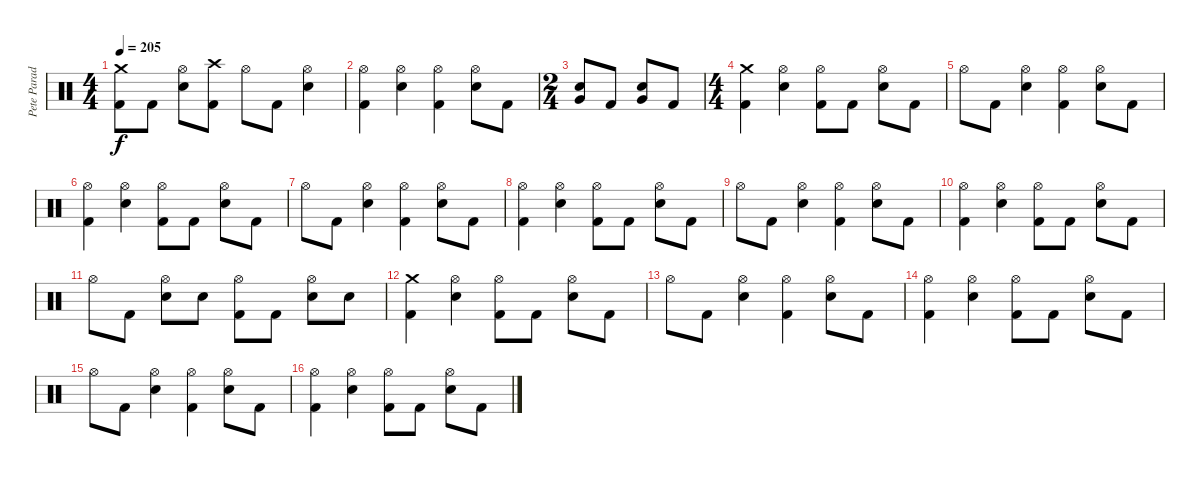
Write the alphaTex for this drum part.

\track ("Pete Parada - Drums" "Pete Parad") {instrument percussion}
\staff {score}
\articulation defaults
\ts (4 4)
\tempo 205
\clef neutral
\ks c
("Crash medium (hit)" "Kick (hit) 2").8{dy f} "Kick (hit) 2".8 ("Hi-Hat (open)" "Electric Snare (hit)").8 ("Crash high (hit)" "Kick (hit) 2").8 "Hi-Hat (open)".8 "Kick (hit) 2".8 ("Hi-Hat (open)" "Electric Snare (hit)").4 |
("Hi-Hat (open)" "Kick (hit) 2").4 ("Hi-Hat (open)" "Electric Snare (hit)").4 ("Hi-Hat (open)" "Kick (hit) 2").4 ("Hi-Hat (open)" "Electric Snare (hit)").8 "Kick (hit) 2".8 |
\ts (2 4)
("Very Low Tom (hit)" "Electric Snare (hit)").8 "Kick (hit) 2".8 ("Very Low Tom (hit)" "Electric Snare (hit)").8 "Kick (hit) 2".8 |
\ts (4 4)
("Crash medium (hit)" "Kick (hit) 2").4 ("Hi-Hat (open)" "Electric Snare (hit)").4 ("Hi-Hat (open)" "Kick (hit) 2").8 "Kick (hit) 2".8 ("Hi-Hat (open)" "Electric Snare (hit)").8 "Kick (hit) 2".8 |
"Hi-Hat (open)".8 "Kick (hit) 2".8 ("Hi-Hat (open)" "Electric Snare (hit)").4 ("Hi-Hat (open)" "Kick (hit) 2").4 ("Hi-Hat (open)" "Electric Snare (hit)").8 "Kick (hit) 2".8 |
("Hi-Hat (open)" "Kick (hit) 2").4 ("Hi-Hat (open)" "Electric Snare (hit)").4 ("Hi-Hat (open)" "Kick (hit) 2").8 "Kick (hit) 2".8 ("Hi-Hat (open)" "Electric Snare (hit)").8 "Kick (hit) 2".8 |
"Hi-Hat (open)".8 "Kick (hit) 2".8 ("Hi-Hat (open)" "Electric Snare (hit)").4 ("Hi-Hat (open)" "Kick (hit) 2").4 ("Hi-Hat (open)" "Electric Snare (hit)").8 "Kick (hit) 2".8 |
("Hi-Hat (open)" "Kick (hit) 2").4 ("Hi-Hat (open)" "Electric Snare (hit)").4 ("Hi-Hat (open)" "Kick (hit) 2").8 "Kick (hit) 2".8 ("Hi-Hat (open)" "Electric Snare (hit)").8 "Kick (hit) 2".8 |
"Hi-Hat (open)".8 "Kick (hit) 2".8 ("Hi-Hat (open)" "Electric Snare (hit)").4 ("Hi-Hat (open)" "Kick (hit) 2").4 ("Hi-Hat (open)" "Electric Snare (hit)").8 "Kick (hit) 2".8 |
("Hi-Hat (open)" "Kick (hit) 2").4 ("Hi-Hat (open)" "Electric Snare (hit)").4 ("Hi-Hat (open)" "Kick (hit) 2").8 "Kick (hit) 2".8 ("Hi-Hat (open)" "Electric Snare (hit)").8 "Kick (hit) 2".8 |
"Hi-Hat (open)".8 "Kick (hit) 2".8 ("Hi-Hat (open)" "Electric Snare (hit)").8 "Electric Snare (hit)".8 ("Hi-Hat (open)" "Kick (hit) 2").8 "Kick (hit) 2".8 ("Hi-Hat (open)" "Electric Snare (hit)").8 "Electric Snare (hit)".8 |
("Crash medium (hit)" "Kick (hit) 2").4 ("Hi-Hat (open)" "Electric Snare (hit)").4 ("Hi-Hat (open)" "Kick (hit) 2").8 "Kick (hit) 2".8 ("Hi-Hat (open)" "Electric Snare (hit)").8 "Kick (hit) 2".8 |
"Hi-Hat (open)".8 "Kick (hit) 2".8 ("Hi-Hat (open)" "Electric Snare (hit)").4 ("Hi-Hat (open)" "Kick (hit) 2").4 ("Hi-Hat (open)" "Electric Snare (hit)").8 "Kick (hit) 2".8 |
("Hi-Hat (open)" "Kick (hit) 2").4 ("Hi-Hat (open)" "Electric Snare (hit)").4 ("Hi-Hat (open)" "Kick (hit) 2").8 "Kick (hit) 2".8 ("Hi-Hat (open)" "Electric Snare (hit)").8 "Kick (hit) 2".8 |
"Hi-Hat (open)".8 "Kick (hit) 2".8 ("Hi-Hat (open)" "Electric Snare (hit)").4 ("Hi-Hat (open)" "Kick (hit) 2").4 ("Hi-Hat (open)" "Electric Snare (hit)").8 "Kick (hit) 2".8 |
("Hi-Hat (open)" "Kick (hit) 2").4 ("Hi-Hat (open)" "Electric Snare (hit)").4 ("Hi-Hat (open)" "Kick (hit) 2").8 "Kick (hit) 2".8 ("Hi-Hat (open)" "Electric Snare (hit)").8 "Kick (hit) 2".8
